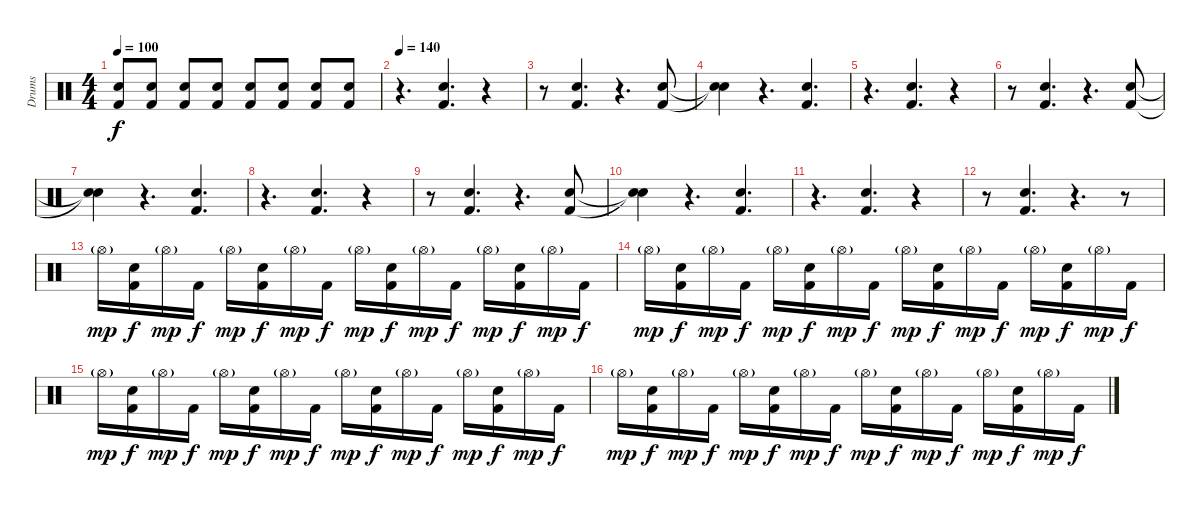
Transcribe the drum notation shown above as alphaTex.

\track ("Drums" "Drums") {instrument percussion}
\staff {score}
\articulation defaults
\ts (4 4)
\tempo 100
\clef neutral
\ks c
("Snare (hit) 2" "Kick (hit) 2").8{dy f} ("Snare (hit) 2" "Kick (hit) 2").8 ("Snare (hit) 2" "Kick (hit) 2").8 ("Snare (hit) 2" "Kick (hit) 2").8 ("Snare (hit) 2" "Kick (hit) 2").8 ("Snare (hit) 2" "Kick (hit) 2").8 ("Snare (hit) 2" "Kick (hit) 2").8 ("Snare (hit) 2" "Kick (hit) 2").8 |
\tempo 140
r.4{d} ("Snare (hit) 2" "Kick (hit) 2").4{d} r.4 |
r.8 ("Snare (hit) 2" "Kick (hit) 2").4{d} r.4{d} ("Snare (hit) 2" "Kick (hit) 2").8 |
("Snare (hit)"{t} "Snare (hit)"{t}).4 r.4{d} ("Snare (hit) 2" "Kick (hit) 2").4{d} |
r.4{d} ("Snare (hit) 2" "Kick (hit) 2").4{d} r.4 |
r.8 ("Snare (hit) 2" "Kick (hit) 2").4{d} r.4{d} ("Snare (hit) 2" "Kick (hit) 2").8 |
("Snare (hit)"{t} "Snare (hit)"{t}).4 r.4{d} ("Snare (hit) 2" "Kick (hit) 2").4{d} |
r.4{d} ("Snare (hit) 2" "Kick (hit) 2").4{d} r.4 |
r.8 ("Snare (hit) 2" "Kick (hit) 2").4{d} r.4{d} ("Snare (hit) 2" "Kick (hit) 2").8 |
("Snare (hit)"{t} "Snare (hit)"{t}).4 r.4{d} ("Snare (hit) 2" "Kick (hit) 2").4{d} |
r.4{d} ("Snare (hit) 2" "Kick (hit) 2").4{d} r.4 |
r.8 ("Snare (hit) 2" "Kick (hit) 2").4{d} r.4{d} r.8 |
"Hi-Hat (open)"{g}.16{dy mp volume 5} ("Snare (hit) 2" "Kick (hit) 2").16{dy f} "Hi-Hat (open)"{g}.16{dy mp} "Kick (hit) 2".16{dy f} "Hi-Hat (open)"{g}.16{dy mp} ("Snare (hit) 2" "Kick (hit) 2").16{dy f} "Hi-Hat (open)"{g}.16{dy mp} "Kick (hit) 2".16{dy f} "Hi-Hat (open)"{g}.16{dy mp} ("Snare (hit) 2" "Kick (hit) 2").16{dy f} "Hi-Hat (open)"{g}.16{dy mp} "Kick (hit) 2".16{dy f} "Hi-Hat (open)"{g}.16{dy mp} ("Snare (hit) 2" "Kick (hit) 2").16{dy f} "Hi-Hat (open)"{g}.16{dy mp} "Kick (hit) 2".16{dy f} |
"Hi-Hat (open)"{g}.16{dy mp} ("Snare (hit) 2" "Kick (hit) 2").16{dy f} "Hi-Hat (open)"{g}.16{dy mp} "Kick (hit) 2".16{dy f} "Hi-Hat (open)"{g}.16{dy mp} ("Snare (hit) 2" "Kick (hit) 2").16{dy f} "Hi-Hat (open)"{g}.16{dy mp} "Kick (hit) 2".16{dy f} "Hi-Hat (open)"{g}.16{dy mp} ("Snare (hit) 2" "Kick (hit) 2").16{dy f} "Hi-Hat (open)"{g}.16{dy mp} "Kick (hit) 2".16{dy f} "Hi-Hat (open)"{g}.16{dy mp} ("Snare (hit) 2" "Kick (hit) 2").16{dy f} "Hi-Hat (open)"{g}.16{dy mp} "Kick (hit) 2".16{dy f} |
"Hi-Hat (open)"{g}.16{dy mp} ("Snare (hit) 2" "Kick (hit) 2").16{dy f} "Hi-Hat (open)"{g}.16{dy mp} "Kick (hit) 2".16{dy f} "Hi-Hat (open)"{g}.16{dy mp} ("Snare (hit) 2" "Kick (hit) 2").16{dy f} "Hi-Hat (open)"{g}.16{dy mp} "Kick (hit) 2".16{dy f} "Hi-Hat (open)"{g}.16{dy mp} ("Snare (hit) 2" "Kick (hit) 2").16{dy f} "Hi-Hat (open)"{g}.16{dy mp} "Kick (hit) 2".16{dy f} "Hi-Hat (open)"{g}.16{dy mp} ("Snare (hit) 2" "Kick (hit) 2").16{dy f} "Hi-Hat (open)"{g}.16{dy mp} "Kick (hit) 2".16{dy f} |
"Hi-Hat (open)"{g}.16{dy mp} ("Snare (hit) 2" "Kick (hit) 2").16{dy f} "Hi-Hat (open)"{g}.16{dy mp} "Kick (hit) 2".16{dy f} "Hi-Hat (open)"{g}.16{dy mp} ("Snare (hit) 2" "Kick (hit) 2").16{dy f} "Hi-Hat (open)"{g}.16{dy mp} "Kick (hit) 2".16{dy f} "Hi-Hat (open)"{g}.16{dy mp} ("Snare (hit) 2" "Kick (hit) 2").16{dy f} "Hi-Hat (open)"{g}.16{dy mp} "Kick (hit) 2".16{dy f} "Hi-Hat (open)"{g}.16{dy mp} ("Snare (hit) 2" "Kick (hit) 2").16{dy f} "Hi-Hat (open)"{g}.16{dy mp} "Kick (hit) 2".16{dy f}
